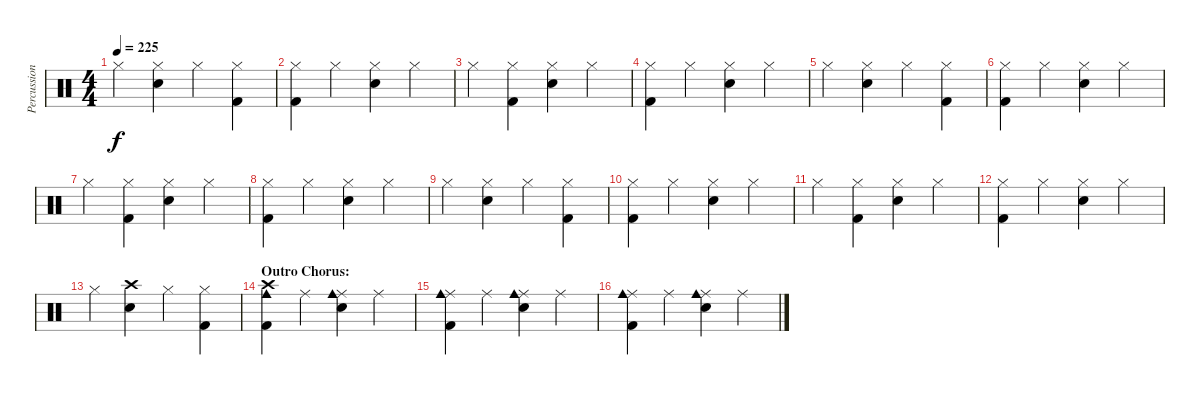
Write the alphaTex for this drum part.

\track ("Percussion" "Percussion") {instrument percussion}
\staff {score}
\articulation defaults
\ts (4 4)
\tempo 225
\clef neutral
\ks c "Hi-Hat (closed)".4{dy f}
("Hi-Hat (closed)" "Electric Snare (hit)").4 "Hi-Hat (closed)".4 ("Hi-Hat (closed)" "Kick (hit) 2").4 |
("Hi-Hat (closed)" "Kick (hit) 2").4 "Hi-Hat (closed)".4 ("Hi-Hat (closed)" "Electric Snare (hit)").4 "Hi-Hat (closed)".4 |
"Hi-Hat (closed)".4 ("Hi-Hat (closed)" "Kick (hit) 2").4 ("Hi-Hat (closed)" "Electric Snare (hit)").4 "Hi-Hat (closed)".4 |
("Hi-Hat (closed)" "Kick (hit) 2").4 "Hi-Hat (closed)".4 ("Hi-Hat (closed)" "Electric Snare (hit)").4 "Hi-Hat (closed)".4 |
"Hi-Hat (closed)".4 ("Hi-Hat (closed)" "Electric Snare (hit)").4 "Hi-Hat (closed)".4 ("Hi-Hat (closed)" "Kick (hit) 2").4 |
("Hi-Hat (closed)" "Kick (hit) 2").4 "Hi-Hat (closed)".4 ("Hi-Hat (closed)" "Electric Snare (hit)").4 "Hi-Hat (closed)".4 |
"Hi-Hat (closed)".4 ("Hi-Hat (closed)" "Kick (hit) 2").4 ("Hi-Hat (closed)" "Electric Snare (hit)").4 "Hi-Hat (closed)".4 |
("Hi-Hat (closed)" "Kick (hit) 2").4 "Hi-Hat (closed)".4 ("Hi-Hat (closed)" "Electric Snare (hit)").4 "Hi-Hat (closed)".4 |
"Hi-Hat (closed)".4 ("Hi-Hat (closed)" "Electric Snare (hit)").4 "Hi-Hat (closed)".4 ("Hi-Hat (closed)" "Kick (hit) 2").4 |
("Hi-Hat (closed)" "Kick (hit) 2").4 "Hi-Hat (closed)".4 ("Hi-Hat (closed)" "Electric Snare (hit)").4 "Hi-Hat (closed)".4 |
"Hi-Hat (closed)".4 ("Hi-Hat (closed)" "Kick (hit) 2").4 ("Hi-Hat (closed)" "Electric Snare (hit)").4 "Hi-Hat (closed)".4 |
("Hi-Hat (closed)" "Kick (hit) 2").4 "Hi-Hat (closed)".4 ("Hi-Hat (closed)" "Electric Snare (hit)").4 "Hi-Hat (closed)".4 |
"Hi-Hat (closed)".4 ("Crash high (hit)" "Electric Snare (hit)").4 "Hi-Hat (closed)".4 ("Hi-Hat (closed)" "Kick (hit) 2").4 |
\section ("" "Outro Chorus:")
("Crash high (hit)" "Cowbell medium (hit)" "Kick (hit) 2").4 "Ride (middle)".4 ("Ride (middle)" "Cowbell medium (hit)" "Electric Snare (hit)").4 "Ride (middle)".4 |
("Ride (middle)" "Cowbell medium (hit)" "Kick (hit) 2").4 "Ride (middle)".4 ("Ride (middle)" "Cowbell medium (hit)" "Electric Snare (hit)").4 "Ride (middle)".4 |
("Ride (middle)" "Cowbell medium (hit)" "Kick (hit) 2").4 "Ride (middle)".4 ("Ride (middle)" "Cowbell medium (hit)" "Electric Snare (hit)").4 "Ride (middle)".4
